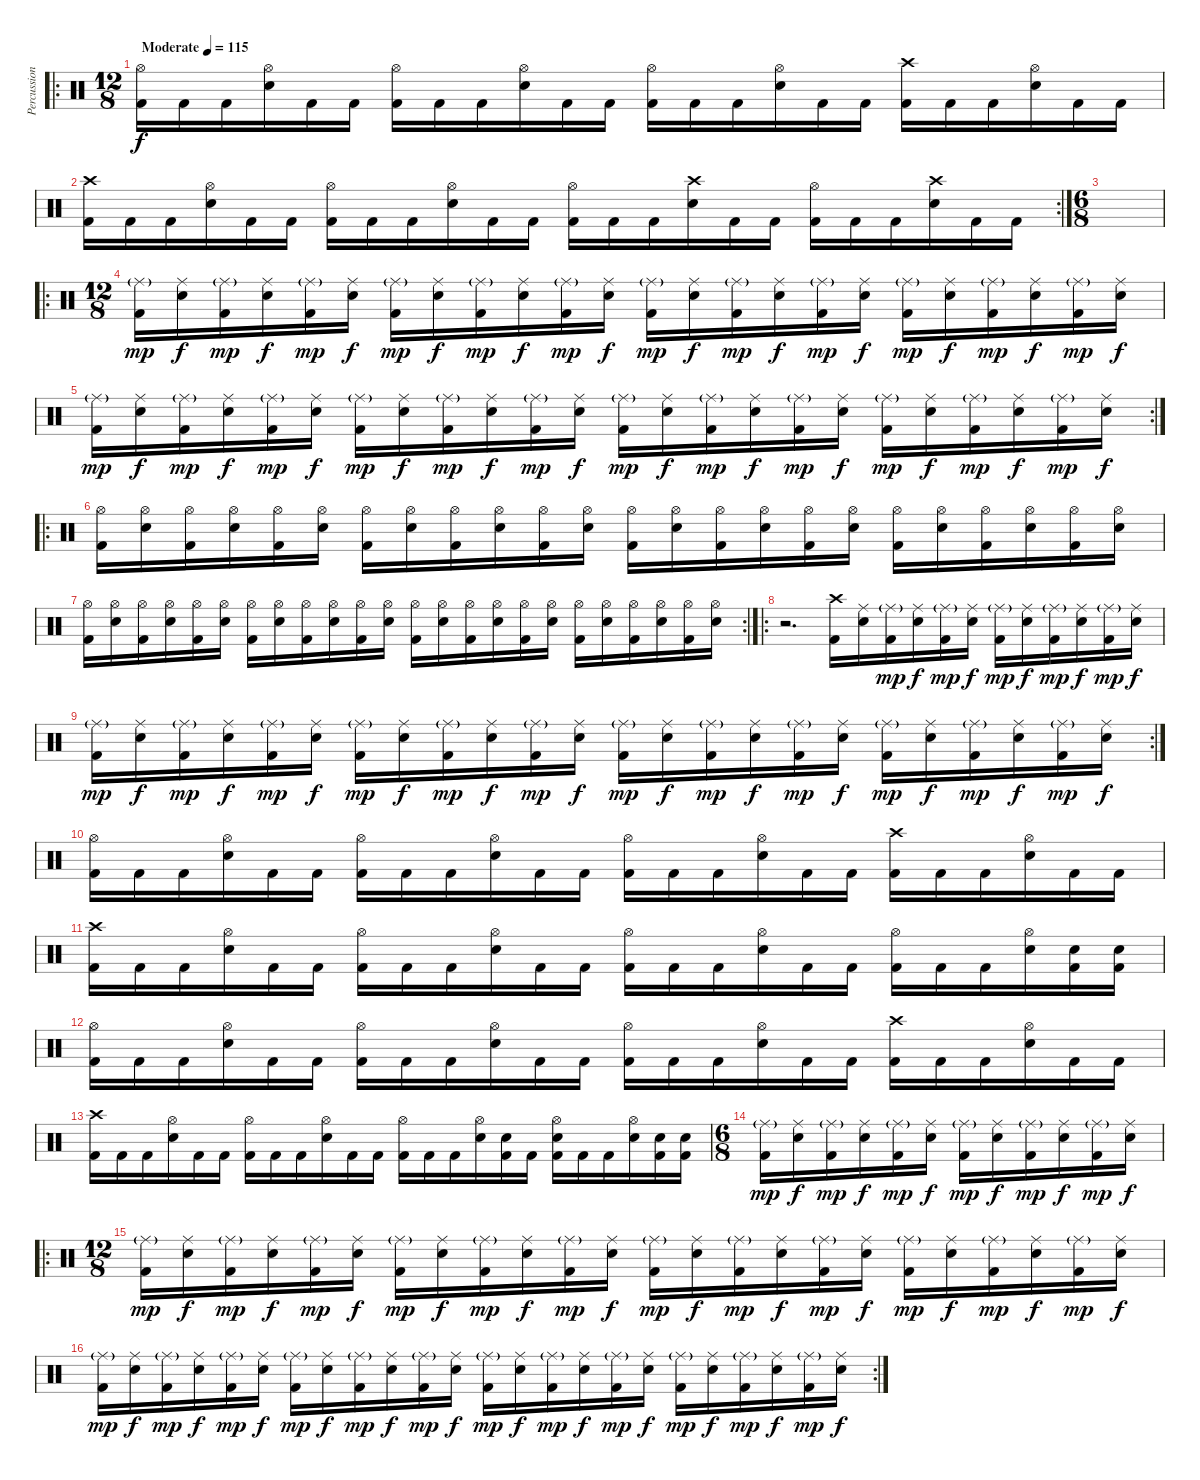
\track ("Percussion" "Percussion") {instrument percussion}
\staff {score}
\articulation defaults
\ro
\ts (12 8)
\tempo (115 "Moderate")
\clef neutral
\ks c
("Hi-Hat (open)" "Kick (hit) 2").16{dy f} "Kick (hit) 2".16 "Kick (hit) 2".16 ("Hi-Hat (open)" "Electric Snare (hit)").16 "Kick (hit) 2".16 "Kick (hit) 2".16 ("Hi-Hat (open)" "Kick (hit) 2").16 "Kick (hit) 2".16 "Kick (hit) 2".16 ("Hi-Hat (open)" "Electric Snare (hit)").16 "Kick (hit) 2".16 "Kick (hit) 2".16 ("Hi-Hat (open)" "Kick (hit) 2").16 "Kick (hit) 2".16 "Kick (hit) 2".16 ("Hi-Hat (open)" "Electric Snare (hit)").16 "Kick (hit) 2".16 "Kick (hit) 2".16 ("Crash high (hit)" "Kick (hit) 2").16 "Kick (hit) 2".16 "Kick (hit) 2".16 ("Hi-Hat (open)" "Electric Snare (hit)").16 "Kick (hit) 2".16 "Kick (hit) 2".16 |
\rc 2
("Crash high (hit)" "Kick (hit) 2").16 "Kick (hit) 2".16 "Kick (hit) 2".16 ("Hi-Hat (open)" "Electric Snare (hit)").16 "Kick (hit) 2".16 "Kick (hit) 2".16 ("Hi-Hat (open)" "Kick (hit) 2").16 "Kick (hit) 2".16 "Kick (hit) 2".16 ("Hi-Hat (open)" "Electric Snare (hit)").16 "Kick (hit) 2".16 "Kick (hit) 2".16 ("Hi-Hat (open)" "Kick (hit) 2").16 "Kick (hit) 2".16 "Kick (hit) 2".16 ("Crash high (hit)" "Electric Snare (hit)").16 "Kick (hit) 2".16 "Kick (hit) 2".16 ("Hi-Hat (open)" "Kick (hit) 2").16 "Kick (hit) 2".16 "Kick (hit) 2".16 ("Crash high (hit)" "Electric Snare (hit)").16 "Kick (hit) 2".16 "Kick (hit) 2".16 |
\ts (6 8)
|
\ro
\ts (12 8)
("Ride (middle)"{g} "Kick (hit) 2").16{dy mp} ("Ride (middle)" "Electric Snare (hit)").16{dy f} ("Ride (middle)"{g} "Kick (hit) 2").16{dy mp} ("Ride (middle)" "Electric Snare (hit)").16{dy f} ("Ride (middle)"{g} "Kick (hit) 2").16{dy mp} ("Ride (middle)" "Electric Snare (hit)").16{dy f} ("Ride (middle)"{g} "Kick (hit) 2").16{dy mp} ("Ride (middle)" "Electric Snare (hit)").16{dy f} ("Ride (middle)"{g} "Kick (hit) 2").16{dy mp} ("Ride (middle)" "Electric Snare (hit)").16{dy f} ("Ride (middle)"{g} "Kick (hit) 2").16{dy mp} ("Ride (middle)" "Electric Snare (hit)").16{dy f} ("Ride (middle)"{g} "Kick (hit) 2").16{dy mp} ("Ride (middle)" "Electric Snare (hit)").16{dy f} ("Ride (middle)"{g} "Kick (hit) 2").16{dy mp} ("Ride (middle)" "Electric Snare (hit)").16{dy f} ("Ride (middle)"{g} "Kick (hit) 2").16{dy mp} ("Ride (middle)" "Electric Snare (hit)").16{dy f} ("Ride (middle)"{g} "Kick (hit) 2").16{dy mp} ("Ride (middle)" "Electric Snare (hit)").16{dy f} ("Ride (middle)"{g} "Kick (hit) 2").16{dy mp} ("Ride (middle)" "Electric Snare (hit)").16{dy f} ("Ride (middle)"{g} "Kick (hit) 2").16{dy mp} ("Ride (middle)" "Electric Snare (hit)").16{dy f} |
\rc 2
("Ride (middle)"{g} "Kick (hit) 2").16{dy mp} ("Ride (middle)" "Electric Snare (hit)").16{dy f} ("Ride (middle)"{g} "Kick (hit) 2").16{dy mp} ("Ride (middle)" "Electric Snare (hit)").16{dy f} ("Ride (middle)"{g} "Kick (hit) 2").16{dy mp} ("Ride (middle)" "Electric Snare (hit)").16{dy f} ("Ride (middle)"{g} "Kick (hit) 2").16{dy mp} ("Ride (middle)" "Electric Snare (hit)").16{dy f} ("Ride (middle)"{g} "Kick (hit) 2").16{dy mp} ("Ride (middle)" "Electric Snare (hit)").16{dy f} ("Ride (middle)"{g} "Kick (hit) 2").16{dy mp} ("Ride (middle)" "Electric Snare (hit)").16{dy f} ("Ride (middle)"{g} "Kick (hit) 2").16{dy mp} ("Ride (middle)" "Electric Snare (hit)").16{dy f} ("Ride (middle)"{g} "Kick (hit) 2").16{dy mp} ("Ride (middle)" "Electric Snare (hit)").16{dy f} ("Ride (middle)"{g} "Kick (hit) 2").16{dy mp} ("Ride (middle)" "Electric Snare (hit)").16{dy f} ("Ride (middle)"{g} "Kick (hit) 2").16{dy mp} ("Ride (middle)" "Electric Snare (hit)").16{dy f} ("Ride (middle)"{g} "Kick (hit) 2").16{dy mp} ("Ride (middle)" "Electric Snare (hit)").16{dy f} ("Ride (middle)"{g} "Kick (hit) 2").16{dy mp} ("Ride (middle)" "Electric Snare (hit)").16{dy f} |
\ro
("Hi-Hat (open)" "Kick (hit) 2").16 ("Hi-Hat (open)" "Electric Snare (hit)").16 ("Hi-Hat (open)" "Kick (hit) 2").16 ("Hi-Hat (open)" "Electric Snare (hit)").16 ("Hi-Hat (open)" "Kick (hit) 2").16 ("Hi-Hat (open)" "Electric Snare (hit)").16 ("Hi-Hat (open)" "Kick (hit) 2").16 ("Hi-Hat (open)" "Electric Snare (hit)").16 ("Hi-Hat (open)" "Kick (hit) 2").16 ("Hi-Hat (open)" "Electric Snare (hit)").16 ("Hi-Hat (open)" "Kick (hit) 2").16 ("Hi-Hat (open)" "Electric Snare (hit)").16 ("Hi-Hat (open)" "Kick (hit) 2").16 ("Hi-Hat (open)" "Electric Snare (hit)").16 ("Hi-Hat (open)" "Kick (hit) 2").16 ("Hi-Hat (open)" "Electric Snare (hit)").16 ("Hi-Hat (open)" "Kick (hit) 2").16 ("Hi-Hat (open)" "Electric Snare (hit)").16 ("Hi-Hat (open)" "Kick (hit) 2").16 ("Hi-Hat (open)" "Electric Snare (hit)").16 ("Hi-Hat (open)" "Kick (hit) 2").16 ("Hi-Hat (open)" "Electric Snare (hit)").16 ("Hi-Hat (open)" "Kick (hit) 2").16 ("Hi-Hat (open)" "Electric Snare (hit)").16 |
\rc 2
("Hi-Hat (open)" "Kick (hit) 2").16 ("Hi-Hat (open)" "Electric Snare (hit)").16 ("Hi-Hat (open)" "Kick (hit) 2").16 ("Hi-Hat (open)" "Electric Snare (hit)").16 ("Hi-Hat (open)" "Kick (hit) 2").16 ("Hi-Hat (open)" "Electric Snare (hit)").16 ("Hi-Hat (open)" "Kick (hit) 2").16 ("Hi-Hat (open)" "Electric Snare (hit)").16 ("Hi-Hat (open)" "Kick (hit) 2").16 ("Hi-Hat (open)" "Electric Snare (hit)").16 ("Hi-Hat (open)" "Kick (hit) 2").16 ("Hi-Hat (open)" "Electric Snare (hit)").16 ("Hi-Hat (open)" "Kick (hit) 2").16 ("Hi-Hat (open)" "Electric Snare (hit)").16 ("Hi-Hat (open)" "Kick (hit) 2").16 ("Hi-Hat (open)" "Electric Snare (hit)").16 ("Hi-Hat (open)" "Kick (hit) 2").16 ("Hi-Hat (open)" "Electric Snare (hit)").16 ("Hi-Hat (open)" "Kick (hit) 2").16 ("Hi-Hat (open)" "Electric Snare (hit)").16 ("Hi-Hat (open)" "Kick (hit) 2").16 ("Hi-Hat (open)" "Electric Snare (hit)").16 ("Hi-Hat (open)" "Kick (hit) 2").16 ("Hi-Hat (open)" "Electric Snare (hit)").16 |
\ro
r.2{d} ("Crash high (hit)" "Kick (hit) 2").16 ("Ride (middle)" "Electric Snare (hit)").16 ("Ride (middle)"{g} "Kick (hit) 2").16{dy mp} ("Ride (middle)" "Electric Snare (hit)").16{dy f} ("Ride (middle)"{g} "Kick (hit) 2").16{dy mp} ("Ride (middle)" "Electric Snare (hit)").16{dy f} ("Ride (middle)"{g} "Kick (hit) 2").16{dy mp} ("Ride (middle)" "Electric Snare (hit)").16{dy f} ("Ride (middle)"{g} "Kick (hit) 2").16{dy mp} ("Ride (middle)" "Electric Snare (hit)").16{dy f} ("Ride (middle)"{g} "Kick (hit) 2").16{dy mp} ("Ride (middle)" "Electric Snare (hit)").16{dy f} |
\rc 2
("Ride (middle)"{g} "Kick (hit) 2").16{dy mp} ("Ride (middle)" "Electric Snare (hit)").16{dy f} ("Ride (middle)"{g} "Kick (hit) 2").16{dy mp} ("Ride (middle)" "Electric Snare (hit)").16{dy f} ("Ride (middle)"{g} "Kick (hit) 2").16{dy mp} ("Ride (middle)" "Electric Snare (hit)").16{dy f} ("Ride (middle)"{g} "Kick (hit) 2").16{dy mp} ("Ride (middle)" "Electric Snare (hit)").16{dy f} ("Ride (middle)"{g} "Kick (hit) 2").16{dy mp} ("Ride (middle)" "Electric Snare (hit)").16{dy f} ("Ride (middle)"{g} "Kick (hit) 2").16{dy mp} ("Ride (middle)" "Electric Snare (hit)").16{dy f} ("Ride (middle)"{g} "Kick (hit) 2").16{dy mp} ("Ride (middle)" "Electric Snare (hit)").16{dy f} ("Ride (middle)"{g} "Kick (hit) 2").16{dy mp} ("Ride (middle)" "Electric Snare (hit)").16{dy f} ("Ride (middle)"{g} "Kick (hit) 2").16{dy mp} ("Ride (middle)" "Electric Snare (hit)").16{dy f} ("Ride (middle)"{g} "Kick (hit) 2").16{dy mp} ("Ride (middle)" "Electric Snare (hit)").16{dy f} ("Ride (middle)"{g} "Kick (hit) 2").16{dy mp} ("Ride (middle)" "Electric Snare (hit)").16{dy f} ("Ride (middle)"{g} "Kick (hit) 2").16{dy mp} ("Ride (middle)" "Electric Snare (hit)").16{dy f} |
("Hi-Hat (open)" "Kick (hit) 2").16 "Kick (hit) 2".16 "Kick (hit) 2".16 ("Hi-Hat (open)" "Electric Snare (hit)").16 "Kick (hit) 2".16 "Kick (hit) 2".16 ("Hi-Hat (open)" "Kick (hit) 2").16 "Kick (hit) 2".16 "Kick (hit) 2".16 ("Hi-Hat (open)" "Electric Snare (hit)").16 "Kick (hit) 2".16 "Kick (hit) 2".16 ("Hi-Hat (open)" "Kick (hit) 2").16 "Kick (hit) 2".16 "Kick (hit) 2".16 ("Hi-Hat (open)" "Electric Snare (hit)").16 "Kick (hit) 2".16 "Kick (hit) 2".16 ("Crash high (hit)" "Kick (hit) 2").16 "Kick (hit) 2".16 "Kick (hit) 2".16 ("Hi-Hat (open)" "Electric Snare (hit)").16 "Kick (hit) 2".16 "Kick (hit) 2".16 |
("Crash high (hit)" "Kick (hit) 2").16 "Kick (hit) 2".16 "Kick (hit) 2".16 ("Hi-Hat (open)" "Electric Snare (hit)").16 "Kick (hit) 2".16 "Kick (hit) 2".16 ("Hi-Hat (open)" "Kick (hit) 2").16 "Kick (hit) 2".16 "Kick (hit) 2".16 ("Hi-Hat (open)" "Electric Snare (hit)").16 "Kick (hit) 2".16 "Kick (hit) 2".16 ("Hi-Hat (open)" "Kick (hit) 2").16 "Kick (hit) 2".16 "Kick (hit) 2".16 ("Hi-Hat (open)" "Electric Snare (hit)").16 "Kick (hit) 2".16 "Kick (hit) 2".16 ("Hi-Hat (open)" "Kick (hit) 2").16 "Kick (hit) 2".16 "Kick (hit) 2".16 ("Hi-Hat (open)" "Electric Snare (hit)").16 ("Electric Snare (hit)" "Kick (hit) 2").16 ("Electric Snare (hit)" "Kick (hit) 2").16 |
("Hi-Hat (open)" "Kick (hit) 2").16 "Kick (hit) 2".16 "Kick (hit) 2".16 ("Hi-Hat (open)" "Electric Snare (hit)").16 "Kick (hit) 2".16 "Kick (hit) 2".16 ("Hi-Hat (open)" "Kick (hit) 2").16 "Kick (hit) 2".16 "Kick (hit) 2".16 ("Hi-Hat (open)" "Electric Snare (hit)").16 "Kick (hit) 2".16 "Kick (hit) 2".16 ("Hi-Hat (open)" "Kick (hit) 2").16 "Kick (hit) 2".16 "Kick (hit) 2".16 ("Hi-Hat (open)" "Electric Snare (hit)").16 "Kick (hit) 2".16 "Kick (hit) 2".16 ("Crash high (hit)" "Kick (hit) 2").16 "Kick (hit) 2".16 "Kick (hit) 2".16 ("Hi-Hat (open)" "Electric Snare (hit)").16 "Kick (hit) 2".16 "Kick (hit) 2".16 |
("Crash high (hit)" "Kick (hit) 2").16 "Kick (hit) 2".16 "Kick (hit) 2".16 ("Hi-Hat (open)" "Electric Snare (hit)").16 "Kick (hit) 2".16 "Kick (hit) 2".16 ("Hi-Hat (open)" "Kick (hit) 2").16 "Kick (hit) 2".16 "Kick (hit) 2".16 ("Hi-Hat (open)" "Electric Snare (hit)").16 "Kick (hit) 2".16 "Kick (hit) 2".16 ("Hi-Hat (open)" "Kick (hit) 2").16 "Kick (hit) 2".16 "Kick (hit) 2".16 ("Hi-Hat (open)" "Electric Snare (hit)").16 ("Electric Snare (hit)" "Kick (hit) 2").16 "Kick (hit) 2".16 ("Hi-Hat (open)" "Electric Snare (hit)" "Kick (hit) 2").16 "Kick (hit) 2".16 "Kick (hit) 2".16 ("Hi-Hat (open)" "Electric Snare (hit)").16 ("Electric Snare (hit)" "Kick (hit) 2").16 ("Electric Snare (hit)" "Kick (hit) 2").16 |
\ts (6 8)
("Ride (middle)"{g} "Kick (hit) 2").16{dy mp} ("Ride (middle)" "Electric Snare (hit)").16{dy f} ("Ride (middle)"{g} "Kick (hit) 2").16{dy mp} ("Ride (middle)" "Electric Snare (hit)").16{dy f} ("Ride (middle)"{g} "Kick (hit) 2").16{dy mp} ("Ride (middle)" "Electric Snare (hit)").16{dy f} ("Ride (middle)"{g} "Kick (hit) 2").16{dy mp} ("Ride (middle)" "Electric Snare (hit)").16{dy f} ("Ride (middle)"{g} "Kick (hit) 2").16{dy mp} ("Ride (middle)" "Electric Snare (hit)").16{dy f} ("Ride (middle)"{g} "Kick (hit) 2").16{dy mp} ("Ride (middle)" "Electric Snare (hit)").16{dy f} |
\ro
\ts (12 8)
("Ride (middle)"{g} "Kick (hit) 2").16{dy mp} ("Ride (middle)" "Electric Snare (hit)").16{dy f} ("Ride (middle)"{g} "Kick (hit) 2").16{dy mp} ("Ride (middle)" "Electric Snare (hit)").16{dy f} ("Ride (middle)"{g} "Kick (hit) 2").16{dy mp} ("Ride (middle)" "Electric Snare (hit)").16{dy f} ("Ride (middle)"{g} "Kick (hit) 2").16{dy mp} ("Ride (middle)" "Electric Snare (hit)").16{dy f} ("Ride (middle)"{g} "Kick (hit) 2").16{dy mp} ("Ride (middle)" "Electric Snare (hit)").16{dy f} ("Ride (middle)"{g} "Kick (hit) 2").16{dy mp} ("Ride (middle)" "Electric Snare (hit)").16{dy f} ("Ride (middle)"{g} "Kick (hit) 2").16{dy mp} ("Ride (middle)" "Electric Snare (hit)").16{dy f} ("Ride (middle)"{g} "Kick (hit) 2").16{dy mp} ("Ride (middle)" "Electric Snare (hit)").16{dy f} ("Ride (middle)"{g} "Kick (hit) 2").16{dy mp} ("Ride (middle)" "Electric Snare (hit)").16{dy f} ("Ride (middle)"{g} "Kick (hit) 2").16{dy mp} ("Ride (middle)" "Electric Snare (hit)").16{dy f} ("Ride (middle)"{g} "Kick (hit) 2").16{dy mp} ("Ride (middle)" "Electric Snare (hit)").16{dy f} ("Ride (middle)"{g} "Kick (hit) 2").16{dy mp} ("Ride (middle)" "Electric Snare (hit)").16{dy f} |
\rc 2
("Ride (middle)"{g} "Kick (hit) 2").16{dy mp} ("Ride (middle)" "Electric Snare (hit)").16{dy f} ("Ride (middle)"{g} "Kick (hit) 2").16{dy mp} ("Ride (middle)" "Electric Snare (hit)").16{dy f} ("Ride (middle)"{g} "Kick (hit) 2").16{dy mp} ("Ride (middle)" "Electric Snare (hit)").16{dy f} ("Ride (middle)"{g} "Kick (hit) 2").16{dy mp} ("Ride (middle)" "Electric Snare (hit)").16{dy f} ("Ride (middle)"{g} "Kick (hit) 2").16{dy mp} ("Ride (middle)" "Electric Snare (hit)").16{dy f} ("Ride (middle)"{g} "Kick (hit) 2").16{dy mp} ("Ride (middle)" "Electric Snare (hit)").16{dy f} ("Ride (middle)"{g} "Kick (hit) 2").16{dy mp} ("Ride (middle)" "Electric Snare (hit)").16{dy f} ("Ride (middle)"{g} "Kick (hit) 2").16{dy mp} ("Ride (middle)" "Electric Snare (hit)").16{dy f} ("Ride (middle)"{g} "Kick (hit) 2").16{dy mp} ("Ride (middle)" "Electric Snare (hit)").16{dy f} ("Ride (middle)"{g} "Kick (hit) 2").16{dy mp} ("Ride (middle)" "Electric Snare (hit)").16{dy f} ("Ride (middle)"{g} "Kick (hit) 2").16{dy mp} ("Ride (middle)" "Electric Snare (hit)").16{dy f} ("Ride (middle)"{g} "Kick (hit) 2").16{dy mp} ("Ride (middle)" "Electric Snare (hit)").16{dy f}
